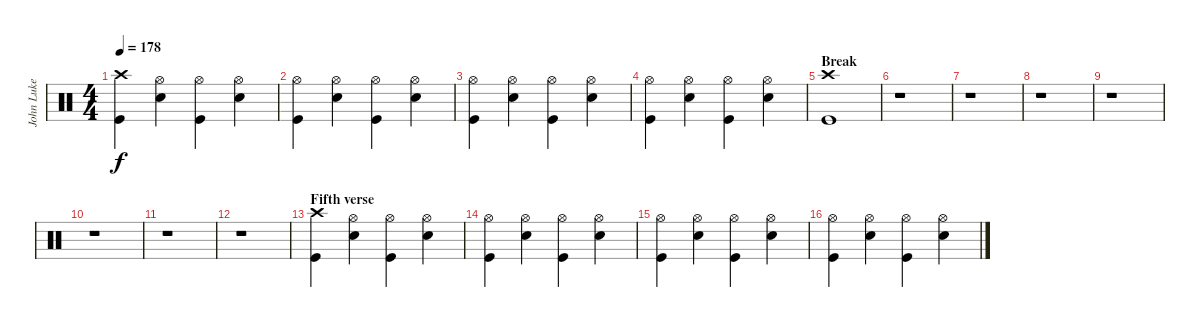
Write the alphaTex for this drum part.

\track ("John Luke (Drums)" "John Luke ") {instrument percussion}
\staff {score}
\articulation defaults
\ts (4 4)
\tempo 178
\clef neutral
\ks c
("Crash high (hit)" "Kick (hit)").4{dy f} ("Hi-Hat (open)" "Electric Snare (hit)").4 ("Hi-Hat (open)" "Kick (hit)").4 ("Hi-Hat (open)" "Electric Snare (hit)").4 |
("Hi-Hat (open)" "Kick (hit)").4 ("Hi-Hat (open)" "Electric Snare (hit)").4 ("Hi-Hat (open)" "Kick (hit)").4 ("Hi-Hat (open)" "Electric Snare (hit)").4 |
("Hi-Hat (open)" "Kick (hit)").4 ("Hi-Hat (open)" "Electric Snare (hit)").4 ("Hi-Hat (open)" "Kick (hit)").4 ("Hi-Hat (open)" "Electric Snare (hit)").4 |
("Hi-Hat (open)" "Kick (hit)").4 ("Hi-Hat (open)" "Electric Snare (hit)").4 ("Hi-Hat (open)" "Kick (hit)").4 ("Hi-Hat (open)" "Electric Snare (hit)").4 |
\section ("" "Break")
("Crash high (hit)" "Kick (hit)").1 |
r.1 |
r.1 |
r.1 |
r.1 |
r.1 |
r.1 |
r.1 |
\section ("" "Fifth verse")
("Crash high (hit)" "Kick (hit)").4 ("Hi-Hat (open)" "Electric Snare (hit)").4 ("Hi-Hat (open)" "Kick (hit)").4 ("Hi-Hat (open)" "Electric Snare (hit)").4 |
("Hi-Hat (open)" "Kick (hit)").4 ("Hi-Hat (open)" "Electric Snare (hit)").4 ("Hi-Hat (open)" "Kick (hit)").4 ("Hi-Hat (open)" "Electric Snare (hit)").4 |
("Hi-Hat (open)" "Kick (hit)").4 ("Hi-Hat (open)" "Electric Snare (hit)").4 ("Hi-Hat (open)" "Kick (hit)").4 ("Hi-Hat (open)" "Electric Snare (hit)").4 |
("Hi-Hat (open)" "Kick (hit)").4 ("Hi-Hat (open)" "Electric Snare (hit)").4 ("Hi-Hat (open)" "Kick (hit)").4 ("Hi-Hat (open)" "Electric Snare (hit)").4
